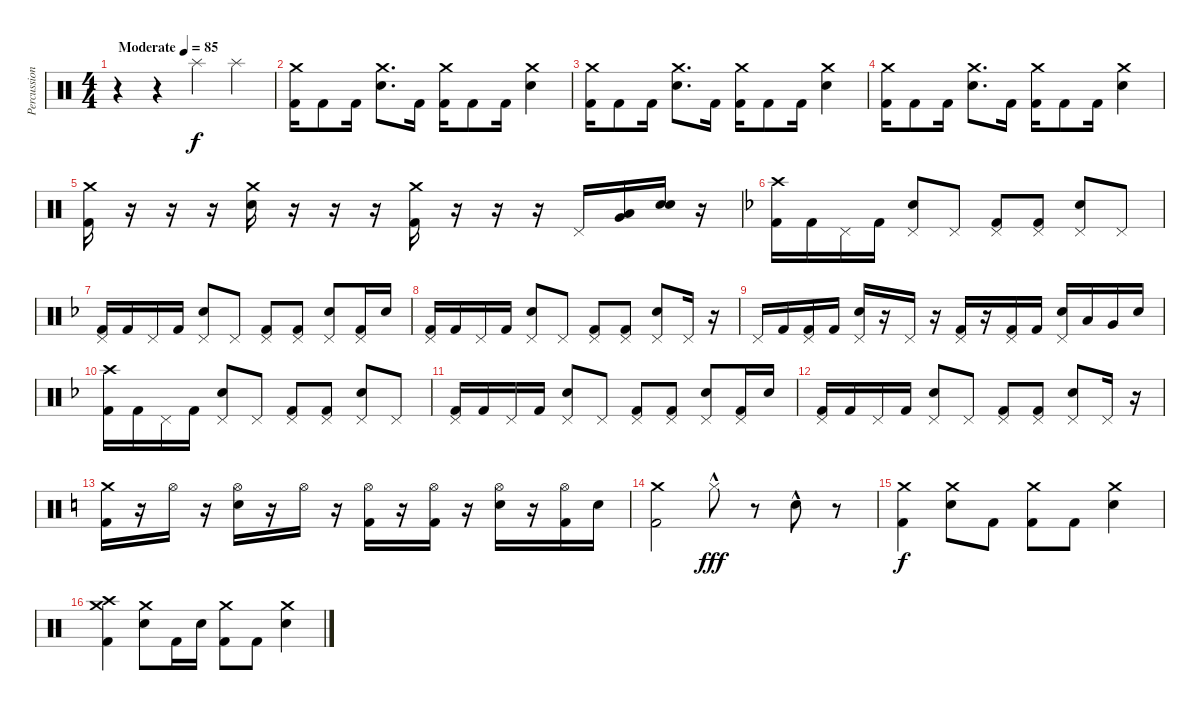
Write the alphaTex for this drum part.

\track ("Percussions" "Percussion") {instrument percussion}
\staff {score}
\articulation defaults
\ts (4 4)
\tempo (85 "Moderate")
\clef neutral
\ks c
r.4{dy f} r.4 "Splash (hit)".4 "Splash (hit)".4 |
("Kick (hit) 2" "Crash medium (hit)").16 "Kick (hit) 2".8 "Kick (hit) 2".16 ("Electric Snare (hit)" "Crash medium (hit)").8{d} "Kick (hit) 2".16 ("Kick (hit) 2" "Crash medium (hit)").16 "Kick (hit) 2".8 "Kick (hit) 2".16 ("Electric Snare (hit)" "Crash medium (hit)").4 |
("Kick (hit) 2" "Crash medium (hit)").16 "Kick (hit) 2".8 "Kick (hit) 2".16 ("Electric Snare (hit)" "Crash medium (hit)").8{d} "Kick (hit) 2".16 ("Kick (hit) 2" "Crash medium (hit)").16 "Kick (hit) 2".8 "Kick (hit) 2".16 ("Electric Snare (hit)" "Crash medium (hit)").4 |
("Kick (hit) 2" "Crash medium (hit)").16 "Kick (hit) 2".8 "Kick (hit) 2".16 ("Electric Snare (hit)" "Crash medium (hit)").8{d} "Kick (hit) 2".16 ("Kick (hit) 2" "Crash medium (hit)").16 "Kick (hit) 2".8 "Kick (hit) 2".16 ("Electric Snare (hit)" "Crash medium (hit)").4 |
("Kick (hit) 2" "Crash medium (hit)").16 r.16 r.16 r.16 ("Electric Snare (hit)" "Crash medium (hit)").16 r.16 r.16 r.16 ("Kick (hit) 2" "Crash medium (hit)").16 r.16 r.16 r.16 "Pedal Hi-Hat (hit)".16 ("Very Low Tom (hit)" "Low Tom (hit)").16 ("Electric Snare (hit)" "Electric Snare (hit)").16 r.16 |
\ks f
("Kick (hit) 2" "Crash high (hit)").16 "Kick (hit) 2".16 "Pedal Hi-Hat (hit)".16 "Kick (hit) 2".16 ("Electric Snare (hit)" "Pedal Hi-Hat (hit)").8 "Pedal Hi-Hat (hit)".8 ("Kick (hit) 2" "Pedal Hi-Hat (hit)").8 ("Kick (hit) 2" "Pedal Hi-Hat (hit)").8 ("Electric Snare (hit)" "Pedal Hi-Hat (hit)").8 "Pedal Hi-Hat (hit)".8 |
("Kick (hit) 2" "Pedal Hi-Hat (hit)").16 "Kick (hit) 2".16 "Pedal Hi-Hat (hit)".16 "Kick (hit) 2".16 ("Electric Snare (hit)" "Pedal Hi-Hat (hit)").8 "Pedal Hi-Hat (hit)".8 ("Kick (hit) 2" "Pedal Hi-Hat (hit)").8 ("Kick (hit) 2" "Pedal Hi-Hat (hit)").8 ("Electric Snare (hit)" "Pedal Hi-Hat (hit)").8 ("Kick (hit) 2" "Pedal Hi-Hat (hit)").16 "Electric Snare (hit)".16 |
("Kick (hit) 2" "Pedal Hi-Hat (hit)").16 "Kick (hit) 2".16 "Pedal Hi-Hat (hit)".16 "Kick (hit) 2".16 ("Electric Snare (hit)" "Pedal Hi-Hat (hit)").8 "Pedal Hi-Hat (hit)".8 ("Kick (hit) 2" "Pedal Hi-Hat (hit)").8 ("Kick (hit) 2" "Pedal Hi-Hat (hit)").8 ("Electric Snare (hit)" "Pedal Hi-Hat (hit)").8 "Pedal Hi-Hat (hit)".16 r.16 |
"Pedal Hi-Hat (hit)".16 "Kick (hit) 2".16 ("Kick (hit) 2" "Pedal Hi-Hat (hit)").16 "Kick (hit) 2".16 ("Electric Snare (hit)" "Pedal Hi-Hat (hit)").16 r.16 "Pedal Hi-Hat (hit)".16 r.16 ("Kick (hit) 2" "Pedal Hi-Hat (hit)").16 r.16 ("Kick (hit) 2" "Pedal Hi-Hat (hit)").16 "Kick (hit) 2".16 ("Electric Snare (hit)" "Pedal Hi-Hat (hit)").16 "Low Tom (hit)".16 "Very Low Tom (hit)".16 "Electric Snare (hit)".16 |
("Kick (hit) 2" "Crash high (hit)").16 "Kick (hit) 2".16 "Pedal Hi-Hat (hit)".16 "Kick (hit) 2".16 ("Electric Snare (hit)" "Pedal Hi-Hat (hit)").8 "Pedal Hi-Hat (hit)".8 ("Kick (hit) 2" "Pedal Hi-Hat (hit)").8 ("Kick (hit) 2" "Pedal Hi-Hat (hit)").8 ("Electric Snare (hit)" "Pedal Hi-Hat (hit)").8 "Pedal Hi-Hat (hit)".8 |
("Kick (hit) 2" "Pedal Hi-Hat (hit)").16 "Kick (hit) 2".16 "Pedal Hi-Hat (hit)".16 "Kick (hit) 2".16 ("Electric Snare (hit)" "Pedal Hi-Hat (hit)").8 "Pedal Hi-Hat (hit)".8 ("Kick (hit) 2" "Pedal Hi-Hat (hit)").8 ("Kick (hit) 2" "Pedal Hi-Hat (hit)").8 ("Electric Snare (hit)" "Pedal Hi-Hat (hit)").8 ("Kick (hit) 2" "Pedal Hi-Hat (hit)").16 "Electric Snare (hit)".16 |
("Kick (hit) 2" "Pedal Hi-Hat (hit)").16 "Kick (hit) 2".16 "Pedal Hi-Hat (hit)".16 "Kick (hit) 2".16 ("Electric Snare (hit)" "Pedal Hi-Hat (hit)").8 "Pedal Hi-Hat (hit)".8 ("Kick (hit) 2" "Pedal Hi-Hat (hit)").8 ("Kick (hit) 2" "Pedal Hi-Hat (hit)").8 ("Electric Snare (hit)" "Pedal Hi-Hat (hit)").8 "Pedal Hi-Hat (hit)".16 r.16 |
\ks c
("Kick (hit) 2" "Crash medium (hit)").16 r.16 "Hi-Hat (open)".16 r.16 ("Electric Snare (hit)" "Hi-Hat (open)").16 r.16 "Hi-Hat (open)".16 r.16 ("Kick (hit) 2" "Hi-Hat (open)").16 r.16 ("Kick (hit) 2" "Hi-Hat (open)").16 r.16 ("Electric Snare (hit)" "Hi-Hat (open)").16 r.16 ("Kick (hit) 2" "Hi-Hat (open)").16 "Electric Snare (hit)".16 |
("Kick (hit) 2" "Crash medium (hit)").2 "Hi-Hat (closed)"{hac}.8{dy fff} r.8 "Electric Snare (hit)"{hac}.8 r.8 |
("Kick (hit) 2" "Crash medium (hit)").4{dy f} ("Electric Snare (hit)" "Crash medium (hit)").8 "Kick (hit) 2".8 ("Kick (hit) 2" "Crash medium (hit)").8 "Kick (hit) 2".8 ("Electric Snare (hit)" "Crash medium (hit)").4 |
("Crash high (hit)" "Kick (hit) 2" "Crash medium (hit)").4 ("Electric Snare (hit)" "Crash medium (hit)").8 "Kick (hit) 2".16 "Electric Snare (hit)".16 ("Kick (hit) 2" "Crash medium (hit)").8 "Kick (hit) 2".8 ("Electric Snare (hit)" "Crash medium (hit)").4
